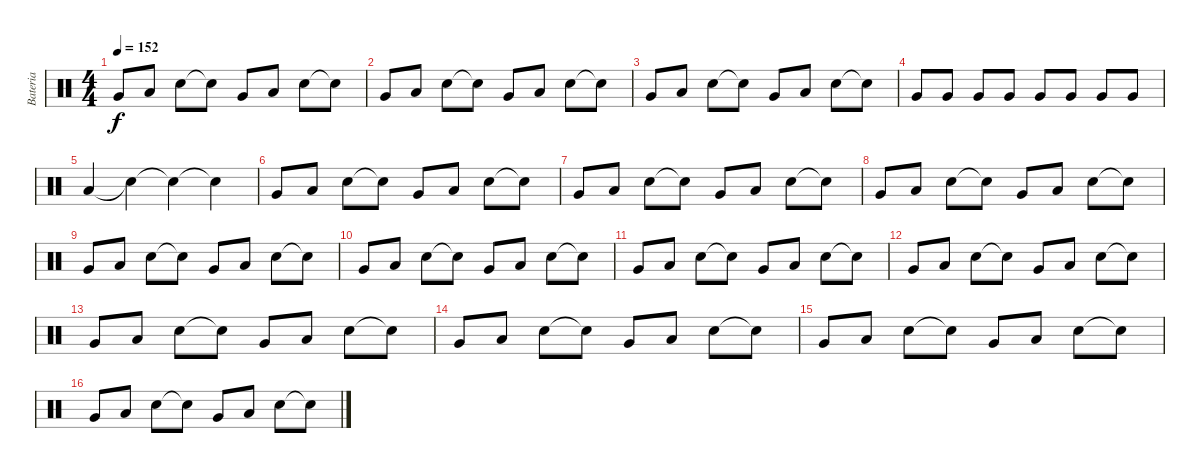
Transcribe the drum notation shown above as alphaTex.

\track ("Bateria" "Bateria") {instrument percussion}
\staff {score}
\articulation defaults
\ts (4 4)
\tempo 152
\clef neutral
\ks c "Very Low Tom (hit)".8{dy f} "Low Floor Tom (hit)".8 "Snare (hit) 2".8 "Snare (hit)"{t}.8 "Very Low Tom (hit)".8 "Low Floor Tom (hit)".8 "Snare (hit) 2".8 "Snare (hit)"{t}.8
|
"Very Low Tom (hit)".8 "Low Floor Tom (hit)".8 "Snare (hit) 2".8 "Snare (hit)"{t}.8 "Very Low Tom (hit)".8 "Low Floor Tom (hit)".8 "Snare (hit) 2".8 "Snare (hit)"{t}.8 |
"Very Low Tom (hit)".8 "Low Floor Tom (hit)".8 "Snare (hit) 2".8 "Snare (hit)"{t}.8 "Very Low Tom (hit)".8 "Low Floor Tom (hit)".8 "Snare (hit) 2".8 "Snare (hit)"{t}.8 |
"Very Low Tom (hit)".8 "Very Low Tom (hit)".8 "Very Low Tom (hit)".8 "Very Low Tom (hit)".8 "Very Low Tom (hit)".8 "Very Low Tom (hit)".8 "Very Low Tom (hit)".8 "Very Low Tom (hit)".8 |
"Low Tom (hit)".4 "Snare (hit)"{t}.4 "Snare (hit)"{t}.4 "Snare (hit)"{t}.4 |
"Very Low Tom (hit)".8 "Low Floor Tom (hit)".8 "Snare (hit) 2".8 "Snare (hit)"{t}.8 "Very Low Tom (hit)".8 "Low Floor Tom (hit)".8 "Snare (hit) 2".8 "Snare (hit)"{t}.8 |
"Very Low Tom (hit)".8 "Low Floor Tom (hit)".8 "Snare (hit) 2".8 "Snare (hit)"{t}.8 "Very Low Tom (hit)".8 "Low Floor Tom (hit)".8 "Snare (hit) 2".8 "Snare (hit)"{t}.8 |
"Very Low Tom (hit)".8 "Low Floor Tom (hit)".8 "Snare (hit) 2".8 "Snare (hit)"{t}.8 "Very Low Tom (hit)".8 "Low Floor Tom (hit)".8 "Snare (hit) 2".8 "Snare (hit)"{t}.8 |
"Very Low Tom (hit)".8 "Low Floor Tom (hit)".8 "Snare (hit) 2".8 "Snare (hit)"{t}.8 "Very Low Tom (hit)".8 "Low Floor Tom (hit)".8 "Snare (hit) 2".8 "Snare (hit)"{t}.8 |
"Very Low Tom (hit)".8 "Low Floor Tom (hit)".8 "Snare (hit) 2".8 "Snare (hit)"{t}.8 "Very Low Tom (hit)".8 "Low Floor Tom (hit)".8 "Snare (hit) 2".8 "Snare (hit)"{t}.8 |
"Very Low Tom (hit)".8 "Low Floor Tom (hit)".8 "Snare (hit) 2".8 "Snare (hit)"{t}.8 "Very Low Tom (hit)".8 "Low Floor Tom (hit)".8 "Snare (hit) 2".8 "Snare (hit)"{t}.8 |
"Very Low Tom (hit)".8 "Low Floor Tom (hit)".8 "Snare (hit) 2".8 "Snare (hit)"{t}.8 "Very Low Tom (hit)".8 "Low Floor Tom (hit)".8 "Snare (hit) 2".8 "Snare (hit)"{t}.8 |
"Very Low Tom (hit)".8 "Low Floor Tom (hit)".8 "Snare (hit) 2".8 "Snare (hit)"{t}.8 "Very Low Tom (hit)".8 "Low Floor Tom (hit)".8 "Snare (hit) 2".8 "Snare (hit)"{t}.8 |
"Very Low Tom (hit)".8 "Low Floor Tom (hit)".8 "Snare (hit) 2".8 "Snare (hit)"{t}.8 "Very Low Tom (hit)".8 "Low Floor Tom (hit)".8 "Snare (hit) 2".8 "Snare (hit)"{t}.8 |
"Very Low Tom (hit)".8 "Low Floor Tom (hit)".8 "Snare (hit) 2".8 "Snare (hit)"{t}.8 "Very Low Tom (hit)".8 "Low Floor Tom (hit)".8 "Snare (hit) 2".8 "Snare (hit)"{t}.8 |
"Very Low Tom (hit)".8 "Low Floor Tom (hit)".8 "Snare (hit) 2".8 "Snare (hit)"{t}.8 "Very Low Tom (hit)".8 "Low Floor Tom (hit)".8 "Snare (hit) 2".8 "Snare (hit)"{t}.8
